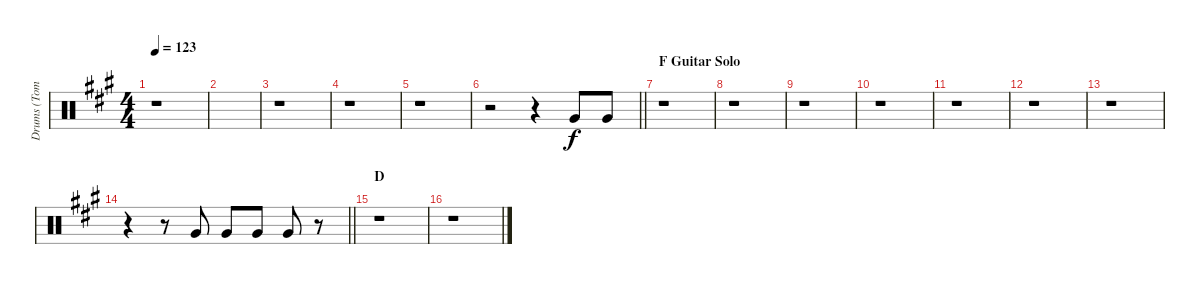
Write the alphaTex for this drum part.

\track ("Drums (Toms" "Drums (Tom") {instrument percussion}
\staff {score}
\articulation defaults
\ts (4 4)
\tempo 123
\clef neutral
\ks a
r.1{dy f} |
|
r.1 |
r.1 |
r.1 |
\barLineRight lightlight
r.2 r.4 "Very Low Tom (hit)".8 "Very Low Tom (hit)".8 |
\section ("" "F Guitar Solo")
r.1 |
r.1 |
r.1 |
r.1 |
r.1 |
r.1 |
r.1 |
\barLineRight lightlight
r.4 r.8 "Very Low Tom (hit)".8 "Very Low Tom (hit)".8 "Very Low Tom (hit)".8 "Very Low Tom (hit)".8 r.8 |
\section ("" "D")
r.1 |
r.1
